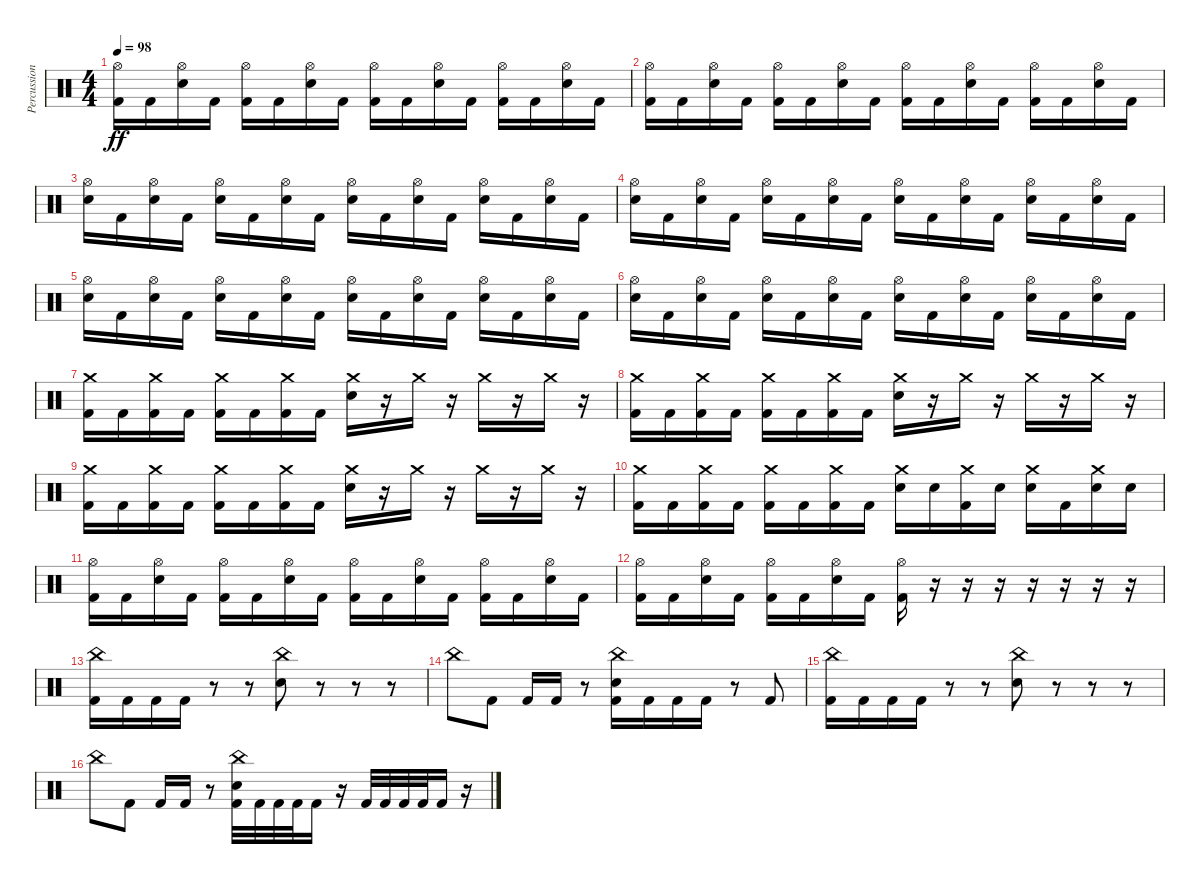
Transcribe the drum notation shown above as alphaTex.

\track ("Percussion" "Percussion") {instrument percussion}
\staff {score}
\articulation defaults
\ts (4 4)
\tempo 98
\clef neutral
\ks c
("Hi-Hat (open)" "Kick (hit) 2").16{dy ff} "Kick (hit) 2".16 ("Hi-Hat (open)" "Electric Snare (hit)").16 "Kick (hit) 2".16 ("Hi-Hat (open)" "Kick (hit) 2").16 "Kick (hit) 2".16 ("Hi-Hat (open)" "Electric Snare (hit)").16 "Kick (hit) 2".16 ("Hi-Hat (open)" "Kick (hit) 2").16 "Kick (hit) 2".16 ("Hi-Hat (open)" "Electric Snare (hit)").16 "Kick (hit) 2".16 ("Hi-Hat (open)" "Kick (hit) 2").16 "Kick (hit) 2".16 ("Hi-Hat (open)" "Electric Snare (hit)").16 "Kick (hit) 2".16 |
("Hi-Hat (open)" "Kick (hit) 2").16 "Kick (hit) 2".16 ("Hi-Hat (open)" "Electric Snare (hit)").16 "Kick (hit) 2".16 ("Hi-Hat (open)" "Kick (hit) 2").16 "Kick (hit) 2".16 ("Hi-Hat (open)" "Electric Snare (hit)").16 "Kick (hit) 2".16 ("Hi-Hat (open)" "Kick (hit) 2").16 "Kick (hit) 2".16 ("Hi-Hat (open)" "Electric Snare (hit)").16 "Kick (hit) 2".16 ("Hi-Hat (open)" "Kick (hit) 2").16 "Kick (hit) 2".16 ("Hi-Hat (open)" "Electric Snare (hit)").16 "Kick (hit) 2".16 |
("Hi-Hat (open)" "Electric Snare (hit)").16 "Kick (hit) 2".16 ("Hi-Hat (open)" "Electric Snare (hit)").16 "Kick (hit) 2".16 ("Hi-Hat (open)" "Electric Snare (hit)").16 "Kick (hit) 2".16 ("Hi-Hat (open)" "Electric Snare (hit)").16 "Kick (hit) 2".16 ("Hi-Hat (open)" "Electric Snare (hit)").16 "Kick (hit) 2".16 ("Hi-Hat (open)" "Electric Snare (hit)").16 "Kick (hit) 2".16 ("Hi-Hat (open)" "Electric Snare (hit)").16 "Kick (hit) 2".16 ("Hi-Hat (open)" "Electric Snare (hit)").16 "Kick (hit) 2".16 |
("Hi-Hat (open)" "Electric Snare (hit)").16 "Kick (hit) 2".16 ("Hi-Hat (open)" "Electric Snare (hit)").16 "Kick (hit) 2".16 ("Hi-Hat (open)" "Electric Snare (hit)").16 "Kick (hit) 2".16 ("Hi-Hat (open)" "Electric Snare (hit)").16 "Kick (hit) 2".16 ("Hi-Hat (open)" "Electric Snare (hit)").16 "Kick (hit) 2".16 ("Hi-Hat (open)" "Electric Snare (hit)").16 "Kick (hit) 2".16 ("Hi-Hat (open)" "Electric Snare (hit)").16 "Kick (hit) 2".16 ("Hi-Hat (open)" "Electric Snare (hit)").16 "Kick (hit) 2".16 |
("Hi-Hat (open)" "Electric Snare (hit)").16 "Kick (hit) 2".16 ("Hi-Hat (open)" "Electric Snare (hit)").16 "Kick (hit) 2".16 ("Hi-Hat (open)" "Electric Snare (hit)").16 "Kick (hit) 2".16 ("Hi-Hat (open)" "Electric Snare (hit)").16 "Kick (hit) 2".16 ("Hi-Hat (open)" "Electric Snare (hit)").16 "Kick (hit) 2".16 ("Hi-Hat (open)" "Electric Snare (hit)").16 "Kick (hit) 2".16 ("Hi-Hat (open)" "Electric Snare (hit)").16 "Kick (hit) 2".16 ("Hi-Hat (open)" "Electric Snare (hit)").16 "Kick (hit) 2".16 |
("Hi-Hat (open)" "Electric Snare (hit)").16 "Kick (hit) 2".16 ("Hi-Hat (open)" "Electric Snare (hit)").16 "Kick (hit) 2".16 ("Hi-Hat (open)" "Electric Snare (hit)").16 "Kick (hit) 2".16 ("Hi-Hat (open)" "Electric Snare (hit)").16 "Kick (hit) 2".16 ("Hi-Hat (open)" "Electric Snare (hit)").16 "Kick (hit) 2".16 ("Hi-Hat (open)" "Electric Snare (hit)").16 "Kick (hit) 2".16 ("Hi-Hat (open)" "Electric Snare (hit)").16 "Kick (hit) 2".16 ("Hi-Hat (open)" "Electric Snare (hit)").16 "Kick (hit) 2".16 |
("Crash medium (hit)" "Kick (hit) 2").16 "Kick (hit) 2".16 ("Crash medium (hit)" "Kick (hit) 2").16 "Kick (hit) 2".16 ("Crash medium (hit)" "Kick (hit) 2").16 "Kick (hit) 2".16 ("Crash medium (hit)" "Kick (hit) 2").16 "Kick (hit) 2".16 ("Crash medium (hit)" "Electric Snare (hit)").16 r.16 "Crash medium (hit)".16 r.16 "Crash medium (hit)".16 r.16 "Crash medium (hit)".16 r.16 |
("Crash medium (hit)" "Kick (hit) 2").16 "Kick (hit) 2".16 ("Crash medium (hit)" "Kick (hit) 2").16 "Kick (hit) 2".16 ("Crash medium (hit)" "Kick (hit) 2").16 "Kick (hit) 2".16 ("Crash medium (hit)" "Kick (hit) 2").16 "Kick (hit) 2".16 ("Crash medium (hit)" "Electric Snare (hit)").16 r.16 "Crash medium (hit)".16 r.16 "Crash medium (hit)".16 r.16 "Crash medium (hit)".16 r.16 |
("Crash medium (hit)" "Kick (hit) 2").16 "Kick (hit) 2".16 ("Crash medium (hit)" "Kick (hit) 2").16 "Kick (hit) 2".16 ("Crash medium (hit)" "Kick (hit) 2").16 "Kick (hit) 2".16 ("Crash medium (hit)" "Kick (hit) 2").16 "Kick (hit) 2".16 ("Crash medium (hit)" "Electric Snare (hit)").16 r.16 "Crash medium (hit)".16 r.16 "Crash medium (hit)".16 r.16 "Crash medium (hit)".16 r.16 |
("Crash medium (hit)" "Kick (hit) 2").16 "Kick (hit) 2".16 ("Crash medium (hit)" "Kick (hit) 2").16 "Kick (hit) 2".16 ("Crash medium (hit)" "Kick (hit) 2").16 "Kick (hit) 2".16 ("Crash medium (hit)" "Kick (hit) 2").16 "Kick (hit) 2".16 ("Crash medium (hit)" "Electric Snare (hit)").16 "Electric Snare (hit)".16 ("Crash medium (hit)" "Kick (hit) 2").16 "Electric Snare (hit)".16 ("Crash medium (hit)" "Electric Snare (hit)").16 "Kick (hit) 2".16 ("Crash medium (hit)" "Electric Snare (hit)").16 "Electric Snare (hit)".16 |
("Hi-Hat (open)" "Kick (hit) 2").16 "Kick (hit) 2".16 ("Hi-Hat (open)" "Electric Snare (hit)").16 "Kick (hit) 2".16 ("Hi-Hat (open)" "Kick (hit) 2").16 "Kick (hit) 2".16 ("Hi-Hat (open)" "Electric Snare (hit)").16 "Kick (hit) 2".16 ("Hi-Hat (open)" "Kick (hit) 2").16 "Kick (hit) 2".16 ("Hi-Hat (open)" "Electric Snare (hit)").16 "Kick (hit) 2".16 ("Hi-Hat (open)" "Kick (hit) 2").16 "Kick (hit) 2".16 ("Hi-Hat (open)" "Electric Snare (hit)").16 "Kick (hit) 2".16 |
("Hi-Hat (open)" "Kick (hit) 2").16 "Kick (hit) 2".16 ("Hi-Hat (open)" "Electric Snare (hit)").16 "Kick (hit) 2".16 ("Hi-Hat (open)" "Kick (hit) 2").16 "Kick (hit) 2".16 ("Hi-Hat (open)" "Electric Snare (hit)").16 "Kick (hit) 2".16 ("Hi-Hat (open)" "Kick (hit) 2").16 r.16 r.16 r.16 r.16 r.16 r.16 r.16 |
("China (hit)" "Kick (hit) 2").16 "Kick (hit) 2".16 "Kick (hit) 2".16 "Kick (hit) 2".16 r.8 r.8 ("China (hit)" "Electric Snare (hit)").8 r.8 r.8 r.8 |
"China (hit)".8 "Kick (hit) 2".8 "Kick (hit) 2".16 "Kick (hit) 2".16 r.8 ("China (hit)" "Electric Snare (hit)" "Kick (hit) 2").16 "Kick (hit) 2".16 "Kick (hit) 2".16 "Kick (hit) 2".16 r.8 "Kick (hit) 2".8 |
("China (hit)" "Kick (hit) 2").16 "Kick (hit) 2".16 "Kick (hit) 2".16 "Kick (hit) 2".16 r.8 r.8 ("China (hit)" "Electric Snare (hit)").8 r.8 r.8 r.8 |
"China (hit)".8 "Kick (hit) 2".8 "Kick (hit) 2".16 "Kick (hit) 2".16 r.8 ("China (hit)" "Electric Snare (hit)" "Kick (hit) 2").32 "Kick (hit) 2".32 "Kick (hit) 2".32 "Kick (hit) 2".32 "Kick (hit) 2".16 r.16 "Kick (hit) 2".32 "Kick (hit) 2".32 "Kick (hit) 2".32 "Kick (hit) 2".32 "Kick (hit) 2".16 r.16
